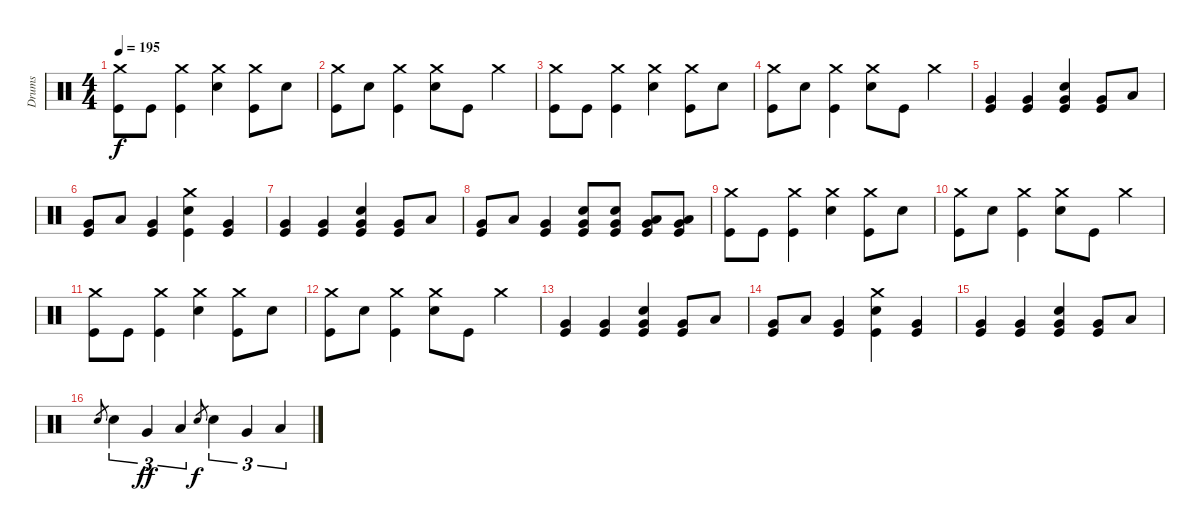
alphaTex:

\track ("Drums" "Drums") {instrument percussion}
\staff {score}
\articulation defaults
\ts (4 4)
\tempo 195
\clef neutral
\ks c
("Crash medium (hit)" "Kick (hit)").8{dy f} "Kick (hit)".8 ("Crash medium (hit)" "Kick (hit)").4 ("Crash medium (hit)" "Electric Snare (hit)").4 ("Crash medium (hit)" "Kick (hit)").8 "Electric Snare (hit)".8 |
("Crash medium (hit)" "Kick (hit)").8 "Electric Snare (hit)".8 ("Crash medium (hit)" "Kick (hit)").4 ("Crash medium (hit)" "Electric Snare (hit)").8 "Kick (hit)".8 "Crash medium (hit)".4 |
("Crash medium (hit)" "Kick (hit)").8 "Kick (hit)".8 ("Crash medium (hit)" "Kick (hit)").4 ("Crash medium (hit)" "Electric Snare (hit)").4 ("Crash medium (hit)" "Kick (hit)").8 "Electric Snare (hit)".8 |
("Crash medium (hit)" "Kick (hit)").8 "Electric Snare (hit)".8 ("Crash medium (hit)" "Kick (hit)").4 ("Crash medium (hit)" "Electric Snare (hit)").8 "Kick (hit)".8 "Crash medium (hit)".4 |
("Very Low Tom (hit)" "Kick (hit)").4 ("Very Low Tom (hit)" "Kick (hit)").4 ("Very Low Tom (hit)" "Electric Snare (hit)" "Kick (hit)").4 ("Very Low Tom (hit)" "Kick (hit)").8 "Low Tom (hit)".8 |
("Very Low Tom (hit)" "Kick (hit)").8 "Low Tom (hit)".8 ("Very Low Tom (hit)" "Kick (hit)").4 ("Crash medium (hit)" "Electric Snare (hit)" "Kick (hit)").4 ("Very Low Tom (hit)" "Kick (hit)").4 |
("Very Low Tom (hit)" "Kick (hit)").4 ("Very Low Tom (hit)" "Kick (hit)").4 ("Very Low Tom (hit)" "Electric Snare (hit)" "Kick (hit)").4 ("Very Low Tom (hit)" "Kick (hit)").8 "Low Tom (hit)".8 |
("Very Low Tom (hit)" "Kick (hit)").8 "Low Tom (hit)".8 ("Very Low Tom (hit)" "Kick (hit)").4 ("Very Low Tom (hit)" "Electric Snare (hit)" "Kick (hit)").8 ("Very Low Tom (hit)" "Electric Snare (hit)" "Kick (hit)").8 ("Very Low Tom (hit)" "Low Floor Tom (hit)" "Kick (hit)").8 ("Very Low Tom (hit)" "Low Floor Tom (hit)" "Kick (hit)").8 |
("Crash medium (hit)" "Kick (hit)").8 "Kick (hit)".8 ("Crash medium (hit)" "Kick (hit)").4 ("Crash medium (hit)" "Electric Snare (hit)").4 ("Crash medium (hit)" "Kick (hit)").8 "Electric Snare (hit)".8 |
("Crash medium (hit)" "Kick (hit)").8 "Electric Snare (hit)".8 ("Crash medium (hit)" "Kick (hit)").4 ("Crash medium (hit)" "Electric Snare (hit)").8 "Kick (hit)".8 "Crash medium (hit)".4 |
("Crash medium (hit)" "Kick (hit)").8 "Kick (hit)".8 ("Crash medium (hit)" "Kick (hit)").4 ("Crash medium (hit)" "Electric Snare (hit)").4 ("Crash medium (hit)" "Kick (hit)").8 "Electric Snare (hit)".8 |
("Crash medium (hit)" "Kick (hit)").8 "Electric Snare (hit)".8 ("Crash medium (hit)" "Kick (hit)").4 ("Crash medium (hit)" "Electric Snare (hit)").8 "Kick (hit)".8 "Crash medium (hit)".4 |
("Very Low Tom (hit)" "Kick (hit)").4 ("Very Low Tom (hit)" "Kick (hit)").4 ("Very Low Tom (hit)" "Electric Snare (hit)" "Kick (hit)").4 ("Very Low Tom (hit)" "Kick (hit)").8 "Low Tom (hit)".8 |
("Very Low Tom (hit)" "Kick (hit)").8 "Low Tom (hit)".8 ("Very Low Tom (hit)" "Kick (hit)").4 ("Crash medium (hit)" "Electric Snare (hit)" "Kick (hit)").4 ("Very Low Tom (hit)" "Kick (hit)").4 |
("Very Low Tom (hit)" "Kick (hit)").4 ("Very Low Tom (hit)" "Kick (hit)").4 ("Very Low Tom (hit)" "Electric Snare (hit)" "Kick (hit)").4 ("Very Low Tom (hit)" "Kick (hit)").8 "Low Tom (hit)".8 |
"Electric Snare (hit)".8{gr} "Electric Snare (hit)".4{tu (3 2)} "Very Low Tom (hit)".4{tu (3 2) dy ff} "Low Floor Tom (hit)".4{tu (3 2)} "Electric Snare (hit)".8{gr dy f} "Electric Snare (hit)".4{tu (3 2)} "Very Low Tom (hit)".4{tu (3 2)} "Low Floor Tom (hit)".4{tu (3 2)}
